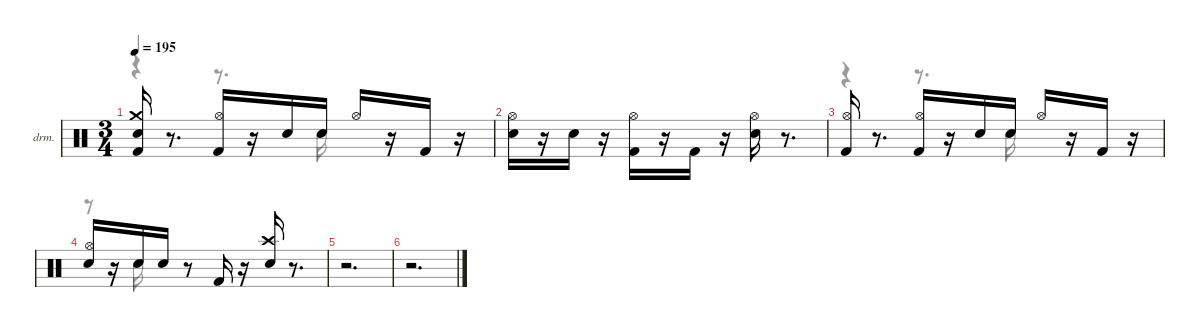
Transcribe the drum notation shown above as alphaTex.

\hideDynamics
\bracketExtendMode nobrackets
\firstSystemTrackNameOrientation horizontal
\track ("Drums" "drm.") {instrument percussion}
\staff {score}
\articulation defaults
\voice
\ts (3 4)
\tempo 195
\clef neutral
\ks aminor
("Kick (hit) 2" "Snare (hit) 2" "Crash medium (hit)").16{dy ff} r.8{d} ("Kick (hit) 2" "Hi-Hat (open)"{acc #}).16{dy mf} r.16 "Snare (hit) 2".16{dy f} "Snare (hit) 2".16{dy ppp} "Hi-Hat (open)"{acc #}.16{dy mf} r.16 "Kick (hit) 2".16{dy f} r.16 |
("Snare (hit) 2" "Hi-Hat (open)"{acc #}).16{dy ff} r.16 "Snare (hit) 2".16{dy ppp} r.16 ("Kick (hit) 2" "Hi-Hat (open)"{acc #}).16 r.16 "Kick (hit) 2".16{dy ff} r.16 ("Snare (hit) 2" "Hi-Hat (open)"{acc #}).16{dy f} r.8{d} |
("Kick (hit) 2" "Hi-Hat (open)"{acc #}).16{dy fff} r.8{d} ("Kick (hit) 2" "Hi-Hat (open)"{acc #}).16{dy f} r.16 "Snare (hit) 2".16 "Snare (hit) 2".16{dy ppp} "Hi-Hat (open)"{acc #}.16{dy ff} r.16 "Kick (hit) 2".16{dy f} r.16 |
("Snare (hit) 2" "Hi-Hat (open)"{acc #}).16{dy fff} r.16 "Snare (hit) 2".16{dy f} "Snare (hit) 2".16{dy mp} r.8 "Kick (hit) 2".16{dy ff} r.16 ("Snare (hit) 2" "Crash high (hit)"{acc #}).16{dy fff} r.8{d} |
r.2{d} |
r.2{d}
\voice
\clef neutral
\ottava regular
\simile none
\ks aminor
r.4{dy pp} r.8{d} "Snare (hit) 2".16 |
|
r.4 r.8{d} "Snare (hit) 2".16 |
r.8 "Snare (hit) 2".16{dy ppp} |
|
